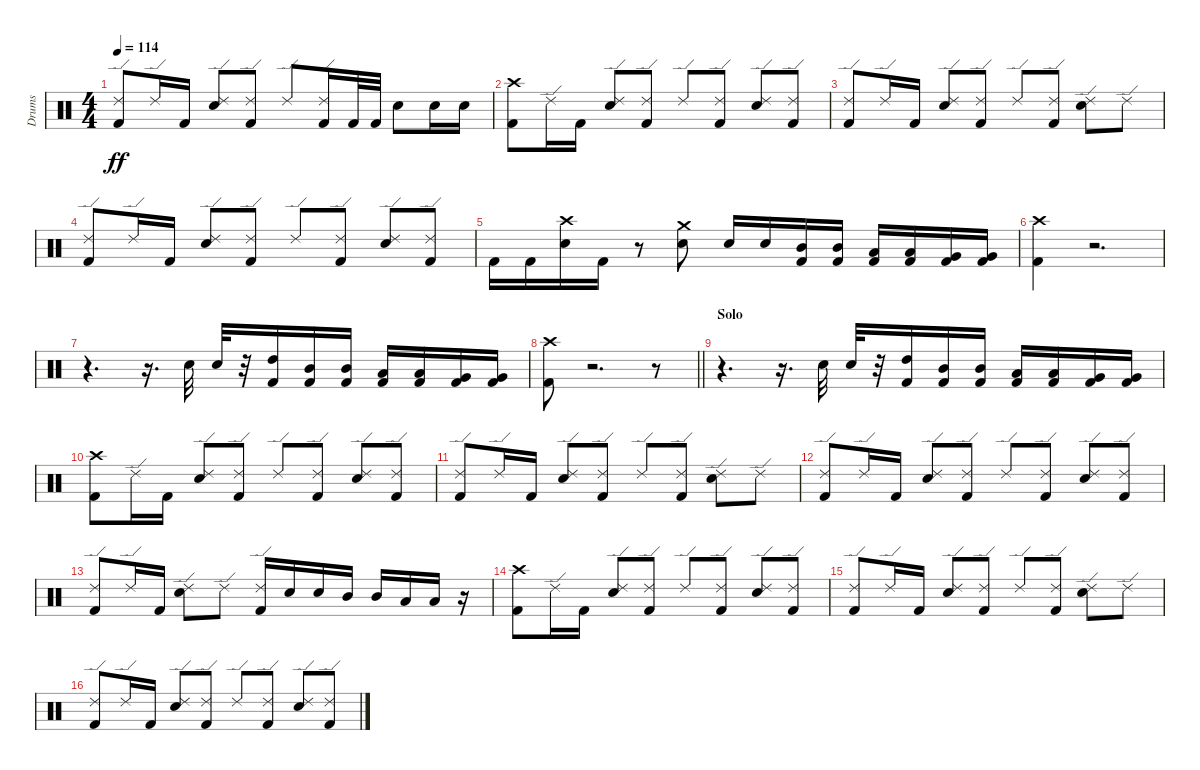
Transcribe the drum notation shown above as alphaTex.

\track ("Drums               " "Drums     ") {instrument percussion}
\staff {score}
\articulation defaults
\ts (4 4)
\tempo 114
\clef neutral
\ks c
("Kick (hit) 2" "Ride (edge) 2").8{dy ff} "Ride (edge) 2".16 "Kick (hit) 2".16 ("Electric Snare (hit)" "Ride (edge) 2").8 ("Kick (hit) 2" "Ride (edge) 2").8 "Ride (edge) 2".8 ("Kick (hit) 2" "Ride (edge) 2").16 "Kick (hit) 2".32 "Kick (hit) 2".32 "Electric Snare (hit)".8 "Electric Snare (hit)".16 "Electric Snare (hit)".16 |
("Kick (hit) 2" "Crash high (hit)").8 "Ride (edge) 2".16 "Kick (hit) 2".16 ("Electric Snare (hit)" "Ride (edge) 2").8 ("Kick (hit) 2" "Ride (edge) 2").8 "Ride (edge) 2".8 ("Kick (hit) 2" "Ride (edge) 2").8 ("Ride (edge) 2" "Electric Snare (hit)").8 ("Kick (hit) 2" "Ride (edge) 2").8 |
("Kick (hit) 2" "Ride (edge) 2").8 "Ride (edge) 2".16 "Kick (hit) 2".16 ("Electric Snare (hit)" "Ride (edge) 2").8 ("Kick (hit) 2" "Ride (edge) 2").8 "Ride (edge) 2".8 ("Ride (edge) 2" "Kick (hit) 2").8 ("Ride (edge) 2" "Electric Snare (hit)").8 "Ride (edge) 2".8 |
("Kick (hit) 2" "Ride (edge) 2").8 "Ride (edge) 2".16 "Kick (hit) 2".16 ("Electric Snare (hit)" "Ride (edge) 2").8 ("Kick (hit) 2" "Ride (edge) 2").8 "Ride (edge) 2".8 ("Kick (hit) 2" "Ride (edge) 2").8 ("Ride (edge) 2" "Electric Snare (hit)").8 ("Kick (hit) 2" "Ride (edge) 2").8 |
"Kick (hit) 2".16 "Kick (hit) 2".16 ("Crash high (hit)" "Electric Snare (hit)").16 "Kick (hit) 2".16 r.8 ("Crash medium (hit)" "Electric Snare (hit)").8 "Electric Snare (hit)".16 "Electric Snare (hit)".16 ("Kick (hit) 2" "Mid Tom (hit)").16 ("Kick (hit) 2" "Mid Tom (hit)").16 ("Kick (hit) 2" "Low Tom (hit)").16 ("Kick (hit) 2" "Low Tom (hit)").16 ("Kick (hit) 2" "Very Low Tom (hit)").16 ("Kick (hit) 2" "Very Low Tom (hit)").16 |
("Crash high (hit)" "Kick (hit) 2").4 r.2{d} |
r.4{d} r.16{d} "Electric Snare (hit)".32 "Electric Snare (hit)".32 r.32 ("Kick (hit) 2" "High Tom (hit)").16 ("Kick (hit) 2" "Mid Tom (hit)").16 ("Kick (hit) 2" "Mid Tom (hit)").16 ("Kick (hit) 2" "Low Tom (hit)").16 ("Kick (hit) 2" "Low Tom (hit)").16 ("Kick (hit) 2" "Very Low Tom (hit)").16 ("Kick (hit) 2" "Very Low Tom (hit)").16 |
\barLineRight lightlight
("Crash high (hit)" "Kick (hit) 2").8 r.2{d} r.8 |
\section ("" "Solo")
r.4{d} r.16{d} "Electric Snare (hit)".32 "Electric Snare (hit)".32 r.32 ("Kick (hit) 2" "High Tom (hit)").16 ("Kick (hit) 2" "Mid Tom (hit)").16 ("Kick (hit) 2" "Mid Tom (hit)").16 ("Kick (hit) 2" "Low Tom (hit)").16 ("Kick (hit) 2" "Low Tom (hit)").16 ("Kick (hit) 2" "Very Low Tom (hit)").16 ("Kick (hit) 2" "Very Low Tom (hit)").16 |
("Kick (hit) 2" "Crash high (hit)").8 "Ride (edge) 2".16 "Kick (hit) 2".16 ("Ride (edge) 2" "Electric Snare (hit)").8 ("Ride (edge) 2" "Kick (hit) 2").8 "Ride (edge) 2".8 ("Kick (hit) 2" "Ride (edge) 2").8 ("Ride (edge) 2" "Electric Snare (hit)").8 ("Kick (hit) 2" "Ride (edge) 2").8 |
("Kick (hit) 2" "Ride (edge) 2").8 "Ride (edge) 2".16 "Kick (hit) 2".16 ("Ride (edge) 2" "Electric Snare (hit)").8 ("Kick (hit) 2" "Ride (edge) 2").8 "Ride (edge) 2".8 ("Kick (hit) 2" "Ride (edge) 2").8 ("Ride (edge) 2" "Electric Snare (hit)").8 "Ride (edge) 2".8 |
("Ride (edge) 2" "Kick (hit) 2").8 "Ride (edge) 2".16 "Kick (hit) 2".16 ("Electric Snare (hit)" "Ride (edge) 2").8 ("Kick (hit) 2" "Ride (edge) 2").8 "Ride (edge) 2".8 ("Ride (edge) 2" "Kick (hit) 2").8 ("Electric Snare (hit)" "Ride (edge) 2").8 ("Kick (hit) 2" "Ride (edge) 2").8 |
("Ride (edge) 2" "Kick (hit) 2").8 "Ride (edge) 2".16 "Kick (hit) 2".16 ("Electric Snare (hit)" "Ride (edge) 2").8 "Ride (edge) 2".8 ("Ride (edge) 2" "Kick (hit) 2").16 "Electric Snare (hit)".16 "Electric Snare (hit)".16 "Mid Tom (hit)".16 "Mid Tom (hit)".16 "Low Tom (hit)".16 "Low Tom (hit)".16 r.16 |
("Kick (hit) 2" "Crash high (hit)").8 "Ride (edge) 2".16 "Kick (hit) 2".16 ("Electric Snare (hit)" "Ride (edge) 2").8 ("Kick (hit) 2" "Ride (edge) 2").8 "Ride (edge) 2".8 ("Kick (hit) 2" "Ride (edge) 2").8 ("Ride (edge) 2" "Electric Snare (hit)").8 ("Kick (hit) 2" "Ride (edge) 2").8 |
("Kick (hit) 2" "Ride (edge) 2").8 "Ride (edge) 2".16 "Kick (hit) 2".16 ("Electric Snare (hit)" "Ride (edge) 2").8 ("Kick (hit) 2" "Ride (edge) 2").8 "Ride (edge) 2".8 ("Ride (edge) 2" "Kick (hit) 2").8 ("Ride (edge) 2" "Electric Snare (hit)").8 "Ride (edge) 2".8 |
("Kick (hit) 2" "Ride (edge) 2").8 "Ride (edge) 2".16 "Kick (hit) 2".16 ("Electric Snare (hit)" "Ride (edge) 2").8 ("Kick (hit) 2" "Ride (edge) 2").8 "Ride (edge) 2".8 ("Kick (hit) 2" "Ride (edge) 2").8 ("Ride (edge) 2" "Electric Snare (hit)").8 ("Kick (hit) 2" "Ride (edge) 2").8
